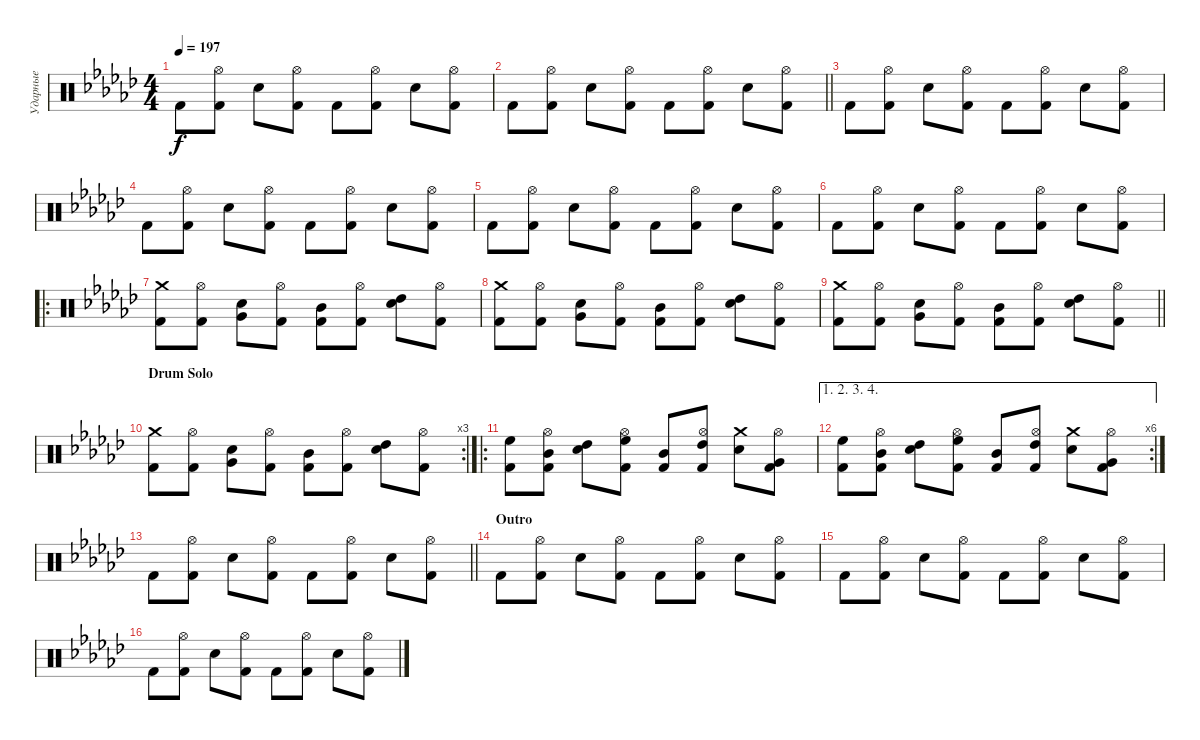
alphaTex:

\track ("Ударные" "Ударные") {instrument percussion}
\staff {score}
\articulation defaults
\ts (4 4)
\tempo 197
\clef neutral
\ks gb "Kick (hit) 2".8{dy f}
("Hi-Hat (open)" "Kick (hit) 2").8 "Snare (hit) 2".8 ("Hi-Hat (open)" "Kick (hit) 2").8 "Kick (hit) 2".8 ("Hi-Hat (open)" "Kick (hit) 2").8 "Snare (hit) 2".8 ("Hi-Hat (open)" "Kick (hit) 2").8 |
\barLineRight lightlight "Kick (hit) 2".8
("Hi-Hat (open)" "Kick (hit) 2").8 "Snare (hit) 2".8 ("Hi-Hat (open)" "Kick (hit) 2").8 "Kick (hit) 2".8 ("Hi-Hat (open)" "Kick (hit) 2").8 "Snare (hit) 2".8 ("Hi-Hat (open)" "Kick (hit) 2").8 |
"Kick (hit) 2".8 ("Hi-Hat (open)" "Kick (hit) 2").8 "Snare (hit) 2".8 ("Hi-Hat (open)" "Kick (hit) 2").8 "Kick (hit) 2".8 ("Hi-Hat (open)" "Kick (hit) 2").8 "Snare (hit) 2".8 ("Hi-Hat (open)" "Kick (hit) 2").8 |
"Kick (hit) 2".8 ("Hi-Hat (open)" "Kick (hit) 2").8 "Snare (hit) 2".8 ("Hi-Hat (open)" "Kick (hit) 2").8 "Kick (hit) 2".8 ("Hi-Hat (open)" "Kick (hit) 2").8 "Snare (hit) 2".8 ("Hi-Hat (open)" "Kick (hit) 2").8 |
"Kick (hit) 2".8 ("Hi-Hat (open)" "Kick (hit) 2").8 "Snare (hit) 2".8 ("Hi-Hat (open)" "Kick (hit) 2").8 "Kick (hit) 2".8 ("Hi-Hat (open)" "Kick (hit) 2").8 "Snare (hit) 2".8 ("Hi-Hat (open)" "Kick (hit) 2").8 |
"Kick (hit) 2".8 ("Hi-Hat (open)" "Kick (hit) 2").8 "Snare (hit) 2".8 ("Hi-Hat (open)" "Kick (hit) 2").8 "Kick (hit) 2".8 ("Hi-Hat (open)" "Kick (hit) 2").8 "Snare (hit) 2".8 ("Hi-Hat (open)" "Kick (hit) 2").8 |
\ro
("Crash medium (hit)" "Kick (hit) 2").8 ("Hi-Hat (open)" "Kick (hit) 2").8 ("Very Low Tom (hit)" "Snare (hit) 2").8 ("Hi-Hat (open)" "Kick (hit) 2").8 ("Mid Tom (hit)" "Kick (hit) 2").8 ("Hi-Hat (open)" "Kick (hit) 2").8 ("High Tom (hit)" "Snare (hit) 2").8 ("Hi-Hat (open)" "Kick (hit) 2").8 |
("Crash medium (hit)" "Kick (hit) 2").8 ("Hi-Hat (open)" "Kick (hit) 2").8 ("Very Low Tom (hit)" "Snare (hit) 2").8 ("Hi-Hat (open)" "Kick (hit) 2").8 ("Mid Tom (hit)" "Kick (hit) 2").8 ("Hi-Hat (open)" "Kick (hit) 2").8 ("High Tom (hit)" "Snare (hit) 2").8 ("Hi-Hat (open)" "Kick (hit) 2").8 |
\barLineRight lightlight
("Crash medium (hit)" "Kick (hit) 2").8 ("Hi-Hat (open)" "Kick (hit) 2").8 ("Very Low Tom (hit)" "Snare (hit) 2").8 ("Hi-Hat (open)" "Kick (hit) 2").8 ("Mid Tom (hit)" "Kick (hit) 2").8 ("Hi-Hat (open)" "Kick (hit) 2").8 ("High Tom (hit)" "Snare (hit) 2").8 ("Hi-Hat (open)" "Kick (hit) 2").8 |
\rc 3
\section ("" "Drum Solo")
("Crash medium (hit)" "Kick (hit) 2").8 ("Hi-Hat (open)" "Kick (hit) 2").8 ("Very Low Tom (hit)" "Snare (hit) 2").8 ("Hi-Hat (open)" "Kick (hit) 2").8 ("Mid Tom (hit)" "Kick (hit) 2").8 ("Hi-Hat (open)" "Kick (hit) 2").8 ("High Tom (hit)" "Snare (hit) 2").8 ("Hi-Hat (open)" "Kick (hit) 2").8 |
\ro
("High Floor Tom (hit)" "Kick (hit) 2").8 ("Hi-Hat (open)" "Mid Tom (hit)" "Kick (hit) 2").8 ("High Tom (hit)" "Snare (hit) 2").8 ("Hi-Hat (open)" "High Floor Tom (hit)" "Kick (hit) 2").8 ("Mid Tom (hit)" "Kick (hit) 2").8 ("Hi-Hat (open)" "High Tom (hit)" "Kick (hit) 2").8 ("Crash medium (hit)" "Snare (hit) 2").8 ("Hi-Hat (open)" "Very Low Tom (hit)" "Kick (hit) 2").8 |
\ae (1 2 3 4)
\rc 6
("High Floor Tom (hit)" "Kick (hit) 2").8 ("Hi-Hat (open)" "Mid Tom (hit)" "Kick (hit) 2").8 ("High Tom (hit)" "Snare (hit) 2").8 ("Hi-Hat (open)" "High Floor Tom (hit)" "Kick (hit) 2").8 ("Mid Tom (hit)" "Kick (hit) 2").8 ("Hi-Hat (open)" "High Tom (hit)" "Kick (hit) 2").8 ("Crash medium (hit)" "Snare (hit) 2").8 ("Hi-Hat (open)" "Very Low Tom (hit)" "Kick (hit) 2").8 |
\barLineRight lightlight "Kick (hit) 2".8
("Hi-Hat (open)" "Kick (hit) 2").8 "Snare (hit) 2".8 ("Hi-Hat (open)" "Kick (hit) 2").8 "Kick (hit) 2".8 ("Hi-Hat (open)" "Kick (hit) 2").8 "Snare (hit) 2".8 ("Hi-Hat (open)" "Kick (hit) 2").8 |
\section ("" "Outro")
"Kick (hit) 2".8 ("Hi-Hat (open)" "Kick (hit) 2").8 "Snare (hit) 2".8 ("Hi-Hat (open)" "Kick (hit) 2").8 "Kick (hit) 2".8 ("Hi-Hat (open)" "Kick (hit) 2").8 "Snare (hit) 2".8 ("Hi-Hat (open)" "Kick (hit) 2").8 |
"Kick (hit) 2".8 ("Hi-Hat (open)" "Kick (hit) 2").8 "Snare (hit) 2".8 ("Hi-Hat (open)" "Kick (hit) 2").8 "Kick (hit) 2".8 ("Hi-Hat (open)" "Kick (hit) 2").8 "Snare (hit) 2".8 ("Hi-Hat (open)" "Kick (hit) 2").8 |
"Kick (hit) 2".8 ("Hi-Hat (open)" "Kick (hit) 2").8 "Snare (hit) 2".8 ("Hi-Hat (open)" "Kick (hit) 2").8 "Kick (hit) 2".8 ("Hi-Hat (open)" "Kick (hit) 2").8 "Snare (hit) 2".8 ("Hi-Hat (open)" "Kick (hit) 2").8
